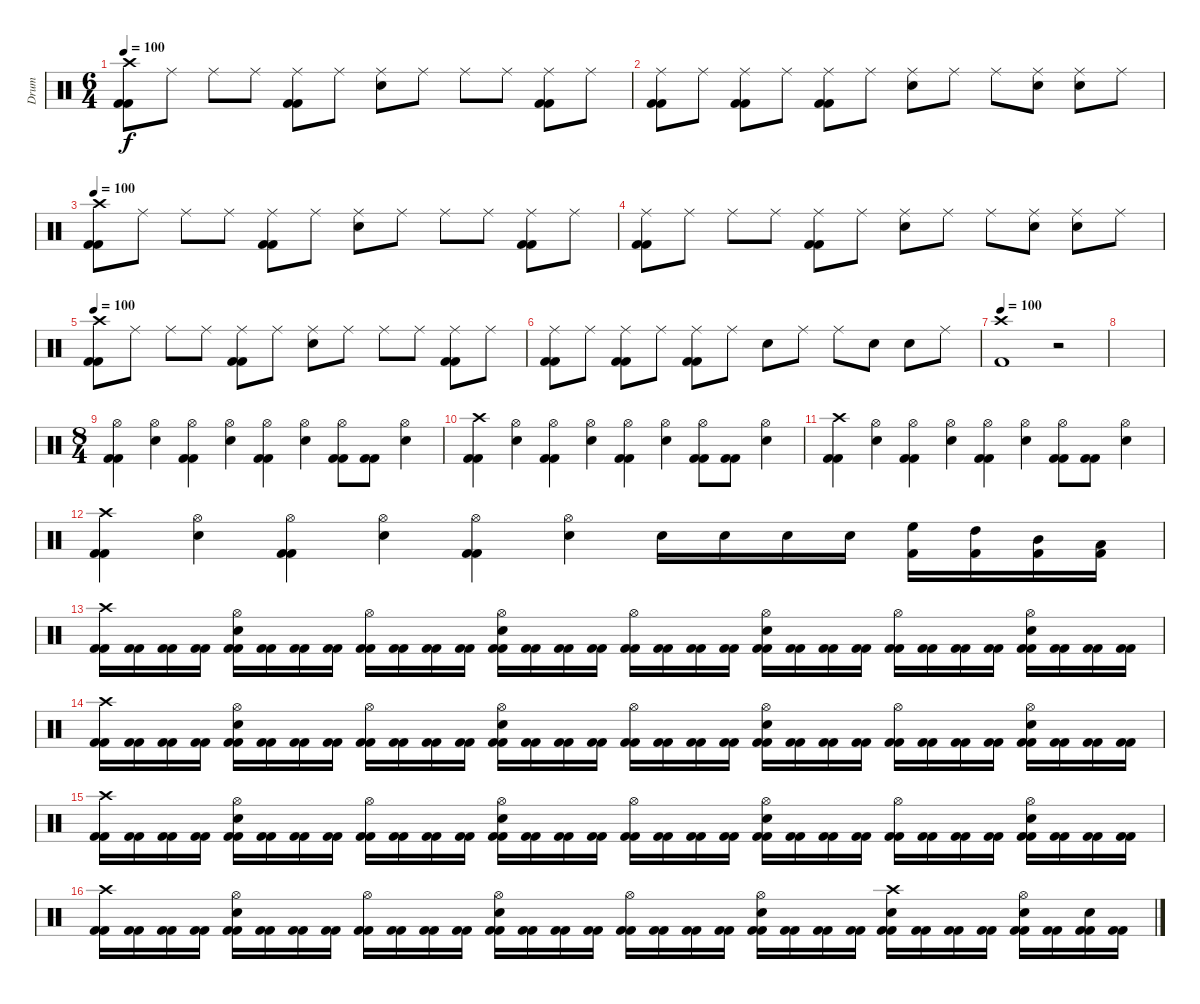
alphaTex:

\track ("Drum" "Drum") {instrument percussion}
\staff {score}
\articulation defaults
\ts (6 4)
\tempo 100
\clef neutral
\ks c
("Crash high (hit)" "Kick (hit) 2" "Kick (hit) 2").8{dy f} "Ride (middle)".8 "Ride (middle)".8 "Ride (middle)".8 ("Ride (middle)" "Kick (hit) 2" "Kick (hit) 2").8 "Ride (middle)".8 ("Ride (middle)" "Electric Snare (hit)").8 "Ride (middle)".8 "Ride (middle)".8 "Ride (middle)".8 ("Ride (middle)" "Kick (hit) 2" "Kick (hit) 2").8 "Ride (middle)".8 |
("Ride (middle)" "Kick (hit) 2" "Kick (hit) 2").8 "Ride (middle)".8 ("Ride (middle)" "Kick (hit) 2" "Kick (hit) 2").8 "Ride (middle)".8 ("Ride (middle)" "Kick (hit) 2" "Kick (hit) 2").8 "Ride (middle)".8 ("Ride (middle)" "Electric Snare (hit)").8 "Ride (middle)".8 "Ride (middle)".8 ("Ride (middle)" "Electric Snare (hit)").8 ("Ride (middle)" "Electric Snare (hit)").8 "Ride (middle)".8 |
\tempo 100
("Crash high (hit)" "Kick (hit) 2" "Kick (hit) 2").8 "Ride (middle)".8 "Ride (middle)".8 "Ride (middle)".8 ("Ride (middle)" "Kick (hit) 2" "Kick (hit) 2").8 "Ride (middle)".8 ("Ride (middle)" "Electric Snare (hit)").8 "Ride (middle)".8 "Ride (middle)".8 "Ride (middle)".8 ("Ride (middle)" "Kick (hit) 2" "Kick (hit) 2").8 "Ride (middle)".8 |
("Ride (middle)" "Kick (hit) 2" "Kick (hit) 2").8 "Ride (middle)".8 "Ride (middle)".8 "Ride (middle)".8 ("Ride (middle)" "Kick (hit) 2" "Kick (hit) 2").8 "Ride (middle)".8 ("Ride (middle)" "Electric Snare (hit)").8 "Ride (middle)".8 "Ride (middle)".8 ("Ride (middle)" "Electric Snare (hit)").8 ("Ride (middle)" "Electric Snare (hit)").8 "Ride (middle)".8 |
\tempo 100
("Crash high (hit)" "Kick (hit) 2" "Kick (hit) 2").8 "Ride (middle)".8 "Ride (middle)".8 "Ride (middle)".8 ("Ride (middle)" "Kick (hit) 2" "Kick (hit) 2").8 "Ride (middle)".8 ("Ride (middle)" "Electric Snare (hit)").8 "Ride (middle)".8 "Ride (middle)".8 "Ride (middle)".8 ("Ride (middle)" "Kick (hit) 2" "Kick (hit) 2").8 "Ride (middle)".8 |
("Ride (middle)" "Kick (hit) 2" "Kick (hit) 2").8 "Ride (middle)".8 ("Ride (middle)" "Kick (hit) 2" "Kick (hit) 2").8 "Ride (middle)".8 ("Ride (middle)" "Kick (hit) 2" "Kick (hit) 2").8 "Ride (middle)".8 "Electric Snare (hit)".8 "Ride (middle)".8 "Ride (middle)".8 "Electric Snare (hit)".8 "Electric Snare (hit)".8 "Ride (middle)".8 |
\tempo 100
("Crash high (hit)" "Kick (hit) 2").1 r.2 |
|
\ts (8 4)
("Hi-Hat (open)" "Kick (hit) 2" "Kick (hit) 2").4 ("Hi-Hat (open)" "Electric Snare (hit)").4 ("Hi-Hat (open)" "Kick (hit) 2" "Kick (hit) 2").4 ("Hi-Hat (open)" "Electric Snare (hit)").4 ("Hi-Hat (open)" "Kick (hit) 2" "Kick (hit) 2").4 ("Hi-Hat (open)" "Electric Snare (hit)").4 ("Hi-Hat (open)" "Kick (hit) 2" "Kick (hit) 2").8 ("Kick (hit) 2" "Kick (hit) 2").8 ("Hi-Hat (open)" "Electric Snare (hit)").4 |
("Crash high (hit)" "Kick (hit) 2" "Kick (hit) 2").4 ("Hi-Hat (open)" "Electric Snare (hit)").4 ("Hi-Hat (open)" "Kick (hit) 2" "Kick (hit) 2").4 ("Hi-Hat (open)" "Electric Snare (hit)").4 ("Hi-Hat (open)" "Kick (hit) 2" "Kick (hit) 2").4 ("Hi-Hat (open)" "Electric Snare (hit)").4 ("Hi-Hat (open)" "Kick (hit) 2" "Kick (hit) 2").8 ("Kick (hit) 2" "Kick (hit) 2").8 ("Hi-Hat (open)" "Electric Snare (hit)").4 |
("Crash high (hit)" "Kick (hit) 2" "Kick (hit) 2").4 ("Hi-Hat (open)" "Electric Snare (hit)").4 ("Hi-Hat (open)" "Kick (hit) 2" "Kick (hit) 2").4 ("Hi-Hat (open)" "Electric Snare (hit)").4 ("Hi-Hat (open)" "Kick (hit) 2" "Kick (hit) 2").4 ("Hi-Hat (open)" "Electric Snare (hit)").4 ("Hi-Hat (open)" "Kick (hit) 2" "Kick (hit) 2").8 ("Kick (hit) 2" "Kick (hit) 2").8 ("Hi-Hat (open)" "Electric Snare (hit)").4 |
("Crash high (hit)" "Kick (hit) 2" "Kick (hit) 2").4 ("Hi-Hat (open)" "Electric Snare (hit)").4 ("Hi-Hat (open)" "Kick (hit) 2" "Kick (hit) 2").4 ("Hi-Hat (open)" "Electric Snare (hit)").4 ("Hi-Hat (open)" "Kick (hit) 2" "Kick (hit) 2").4 ("Hi-Hat (open)" "Electric Snare (hit)").4 "Electric Snare (hit)".16 "Electric Snare (hit)".16 "Electric Snare (hit)".16 "Electric Snare (hit)".16 ("High Floor Tom (hit)" "Kick (hit) 2").16 ("High Tom (hit)" "Kick (hit) 2").16 ("Mid Tom (hit)" "Kick (hit) 2").16 ("Low Tom (hit)" "Kick (hit) 2").16 |
("Crash high (hit)" "Kick (hit) 2" "Kick (hit) 2").16 ("Kick (hit) 2" "Kick (hit) 2").16 ("Kick (hit) 2" "Kick (hit) 2").16 ("Kick (hit) 2" "Kick (hit) 2").16 ("Hi-Hat (open)" "Electric Snare (hit)" "Kick (hit) 2" "Kick (hit) 2").16 ("Kick (hit) 2" "Kick (hit) 2").16 ("Kick (hit) 2" "Kick (hit) 2").16 ("Kick (hit) 2" "Kick (hit) 2").16 ("Hi-Hat (open)" "Kick (hit) 2" "Kick (hit) 2").16 ("Kick (hit) 2" "Kick (hit) 2").16 ("Kick (hit) 2" "Kick (hit) 2").16 ("Kick (hit) 2" "Kick (hit) 2").16 ("Hi-Hat (open)" "Electric Snare (hit)" "Kick (hit) 2" "Kick (hit) 2").16 ("Kick (hit) 2" "Kick (hit) 2").16 ("Kick (hit) 2" "Kick (hit) 2").16 ("Kick (hit) 2" "Kick (hit) 2").16 ("Hi-Hat (open)" "Kick (hit) 2" "Kick (hit) 2").16 ("Kick (hit) 2" "Kick (hit) 2").16 ("Kick (hit) 2" "Kick (hit) 2").16 ("Kick (hit) 2" "Kick (hit) 2").16 ("Hi-Hat (open)" "Electric Snare (hit)" "Kick (hit) 2" "Kick (hit) 2").16 ("Kick (hit) 2" "Kick (hit) 2").16 ("Kick (hit) 2" "Kick (hit) 2").16 ("Kick (hit) 2" "Kick (hit) 2").16 ("Hi-Hat (open)" "Kick (hit) 2" "Kick (hit) 2").16 ("Kick (hit) 2" "Kick (hit) 2").16 ("Kick (hit) 2" "Kick (hit) 2").16 ("Kick (hit) 2" "Kick (hit) 2").16 ("Hi-Hat (open)" "Electric Snare (hit)" "Kick (hit) 2" "Kick (hit) 2").16 ("Kick (hit) 2" "Kick (hit) 2").16 ("Kick (hit) 2" "Kick (hit) 2").16 ("Kick (hit) 2" "Kick (hit) 2").16 |
("Crash high (hit)" "Kick (hit) 2" "Kick (hit) 2").16 ("Kick (hit) 2" "Kick (hit) 2").16 ("Kick (hit) 2" "Kick (hit) 2").16 ("Kick (hit) 2" "Kick (hit) 2").16 ("Hi-Hat (open)" "Electric Snare (hit)" "Kick (hit) 2" "Kick (hit) 2").16 ("Kick (hit) 2" "Kick (hit) 2").16 ("Kick (hit) 2" "Kick (hit) 2").16 ("Kick (hit) 2" "Kick (hit) 2").16 ("Hi-Hat (open)" "Kick (hit) 2" "Kick (hit) 2").16 ("Kick (hit) 2" "Kick (hit) 2").16 ("Kick (hit) 2" "Kick (hit) 2").16 ("Kick (hit) 2" "Kick (hit) 2").16 ("Hi-Hat (open)" "Electric Snare (hit)" "Kick (hit) 2" "Kick (hit) 2").16 ("Kick (hit) 2" "Kick (hit) 2").16 ("Kick (hit) 2" "Kick (hit) 2").16 ("Kick (hit) 2" "Kick (hit) 2").16 ("Hi-Hat (open)" "Kick (hit) 2" "Kick (hit) 2").16 ("Kick (hit) 2" "Kick (hit) 2").16 ("Kick (hit) 2" "Kick (hit) 2").16 ("Kick (hit) 2" "Kick (hit) 2").16 ("Hi-Hat (open)" "Electric Snare (hit)" "Kick (hit) 2" "Kick (hit) 2").16 ("Kick (hit) 2" "Kick (hit) 2").16 ("Kick (hit) 2" "Kick (hit) 2").16 ("Kick (hit) 2" "Kick (hit) 2").16 ("Hi-Hat (open)" "Kick (hit) 2" "Kick (hit) 2").16 ("Kick (hit) 2" "Kick (hit) 2").16 ("Kick (hit) 2" "Kick (hit) 2").16 ("Kick (hit) 2" "Kick (hit) 2").16 ("Hi-Hat (open)" "Electric Snare (hit)" "Kick (hit) 2" "Kick (hit) 2").16 ("Kick (hit) 2" "Kick (hit) 2").16 ("Kick (hit) 2" "Kick (hit) 2").16 ("Kick (hit) 2" "Kick (hit) 2").16 |
("Crash high (hit)" "Kick (hit) 2" "Kick (hit) 2").16 ("Kick (hit) 2" "Kick (hit) 2").16 ("Kick (hit) 2" "Kick (hit) 2").16 ("Kick (hit) 2" "Kick (hit) 2").16 ("Hi-Hat (open)" "Electric Snare (hit)" "Kick (hit) 2" "Kick (hit) 2").16 ("Kick (hit) 2" "Kick (hit) 2").16 ("Kick (hit) 2" "Kick (hit) 2").16 ("Kick (hit) 2" "Kick (hit) 2").16 ("Hi-Hat (open)" "Kick (hit) 2" "Kick (hit) 2").16 ("Kick (hit) 2" "Kick (hit) 2").16 ("Kick (hit) 2" "Kick (hit) 2").16 ("Kick (hit) 2" "Kick (hit) 2").16 ("Hi-Hat (open)" "Electric Snare (hit)" "Kick (hit) 2" "Kick (hit) 2").16 ("Kick (hit) 2" "Kick (hit) 2").16 ("Kick (hit) 2" "Kick (hit) 2").16 ("Kick (hit) 2" "Kick (hit) 2").16 ("Hi-Hat (open)" "Kick (hit) 2" "Kick (hit) 2").16 ("Kick (hit) 2" "Kick (hit) 2").16 ("Kick (hit) 2" "Kick (hit) 2").16 ("Kick (hit) 2" "Kick (hit) 2").16 ("Hi-Hat (open)" "Electric Snare (hit)" "Kick (hit) 2" "Kick (hit) 2").16 ("Kick (hit) 2" "Kick (hit) 2").16 ("Kick (hit) 2" "Kick (hit) 2").16 ("Kick (hit) 2" "Kick (hit) 2").16 ("Hi-Hat (open)" "Kick (hit) 2" "Kick (hit) 2").16 ("Kick (hit) 2" "Kick (hit) 2").16 ("Kick (hit) 2" "Kick (hit) 2").16 ("Kick (hit) 2" "Kick (hit) 2").16 ("Hi-Hat (open)" "Electric Snare (hit)" "Kick (hit) 2" "Kick (hit) 2").16 ("Kick (hit) 2" "Kick (hit) 2").16 ("Kick (hit) 2" "Kick (hit) 2").16 ("Kick (hit) 2" "Kick (hit) 2").16 |
("Crash high (hit)" "Kick (hit) 2" "Kick (hit) 2").16 ("Kick (hit) 2" "Kick (hit) 2").16 ("Kick (hit) 2" "Kick (hit) 2").16 ("Kick (hit) 2" "Kick (hit) 2").16 ("Hi-Hat (open)" "Electric Snare (hit)" "Kick (hit) 2" "Kick (hit) 2").16 ("Kick (hit) 2" "Kick (hit) 2").16 ("Kick (hit) 2" "Kick (hit) 2").16 ("Kick (hit) 2" "Kick (hit) 2").16 ("Hi-Hat (open)" "Kick (hit) 2" "Kick (hit) 2").16 ("Kick (hit) 2" "Kick (hit) 2").16 ("Kick (hit) 2" "Kick (hit) 2").16 ("Kick (hit) 2" "Kick (hit) 2").16 ("Hi-Hat (open)" "Electric Snare (hit)" "Kick (hit) 2" "Kick (hit) 2").16 ("Kick (hit) 2" "Kick (hit) 2").16 ("Kick (hit) 2" "Kick (hit) 2").16 ("Kick (hit) 2" "Kick (hit) 2").16 ("Hi-Hat (open)" "Kick (hit) 2" "Kick (hit) 2").16 ("Kick (hit) 2" "Kick (hit) 2").16 ("Kick (hit) 2" "Kick (hit) 2").16 ("Kick (hit) 2" "Kick (hit) 2").16 ("Hi-Hat (open)" "Electric Snare (hit)" "Kick (hit) 2" "Kick (hit) 2").16 ("Kick (hit) 2" "Kick (hit) 2").16 ("Kick (hit) 2" "Kick (hit) 2").16 ("Kick (hit) 2" "Kick (hit) 2").16 ("Crash high (hit)" "Electric Snare (hit)" "Kick (hit) 2" "Kick (hit) 2").16 ("Kick (hit) 2" "Kick (hit) 2").16 ("Kick (hit) 2" "Kick (hit) 2").16 ("Kick (hit) 2" "Kick (hit) 2").16 ("Hi-Hat (open)" "Electric Snare (hit)" "Kick (hit) 2" "Kick (hit) 2").16 ("Kick (hit) 2" "Kick (hit) 2").16 ("Electric Snare (hit)" "Kick (hit) 2" "Kick (hit) 2").16 ("Kick (hit) 2" "Kick (hit) 2").16
